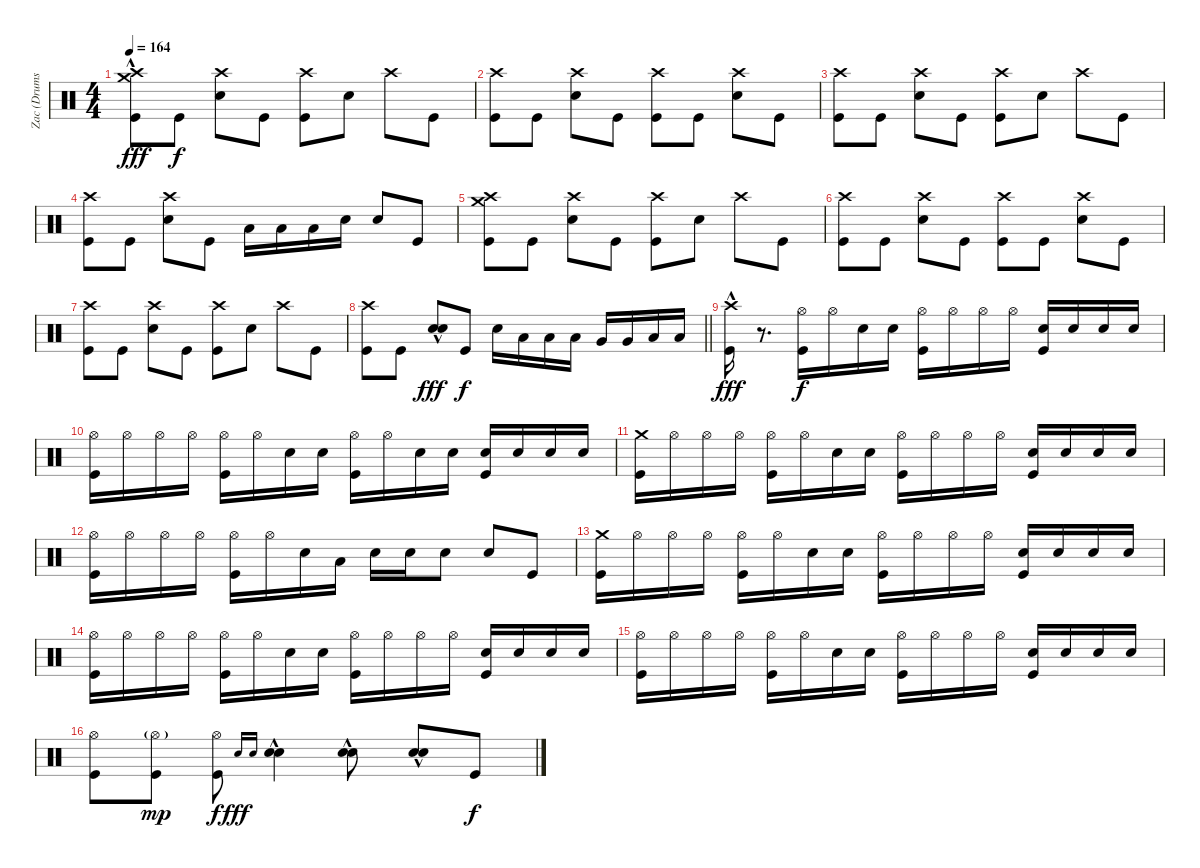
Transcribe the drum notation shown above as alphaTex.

\track ("Zac (Drums)" "Zac (Drums") {instrument percussion}
\staff {score}
\articulation defaults
\ts (4 4)
\tempo 164
\clef neutral
\ks c
("Crash high (hit)"{hac} "Crash medium (hit)" "Kick (hit)").8{dy fff} "Kick (hit)".8{dy f} ("Crash high (hit)" "Electric Snare (hit)").8 "Kick (hit)".8 ("Crash high (hit)" "Kick (hit)").8 "Electric Snare (hit)".8 "Crash high (hit)".8 "Kick (hit)".8 |
("Crash high (hit)" "Kick (hit)").8 "Kick (hit)".8 ("Crash high (hit)" "Electric Snare (hit)").8 "Kick (hit)".8 ("Crash high (hit)" "Kick (hit)").8 "Kick (hit)".8 ("Crash high (hit)" "Electric Snare (hit)").8 "Kick (hit)".8 |
("Crash high (hit)" "Kick (hit)").8 "Kick (hit)".8 ("Crash high (hit)" "Electric Snare (hit)").8 "Kick (hit)".8 ("Crash high (hit)" "Kick (hit)").8 "Electric Snare (hit)".8 "Crash high (hit)".8 "Kick (hit)".8 |
("Crash high (hit)" "Kick (hit)").8 "Kick (hit)".8 ("Crash high (hit)" "Electric Snare (hit)").8 "Kick (hit)".8 "Low Tom (hit)".16 "Low Tom (hit)".16 "Low Tom (hit)".16 "Electric Snare (hit)".16 "Electric Snare (hit)".8 "Kick (hit)".8 |
("Crash high (hit)" "Crash medium (hit)" "Kick (hit)").8 "Kick (hit)".8 ("Crash high (hit)" "Electric Snare (hit)").8 "Kick (hit)".8 ("Crash high (hit)" "Kick (hit)").8 "Electric Snare (hit)".8 "Crash high (hit)".8 "Kick (hit)".8 |
("Crash high (hit)" "Kick (hit)").8 "Kick (hit)".8 ("Crash high (hit)" "Electric Snare (hit)").8 "Kick (hit)".8 ("Crash high (hit)" "Kick (hit)").8 "Kick (hit)".8 ("Crash high (hit)" "Electric Snare (hit)").8 "Kick (hit)".8 |
("Crash high (hit)" "Kick (hit)").8 "Kick (hit)".8 ("Crash high (hit)" "Electric Snare (hit)").8 "Kick (hit)".8 ("Crash high (hit)" "Kick (hit)").8 "Electric Snare (hit)".8 "Crash high (hit)".8 "Kick (hit)".8 |
\barLineRight lightlight
("Crash high (hit)" "Kick (hit)").8 "Kick (hit)".8 ("Electric Snare (hit)"{hac} "Electric Snare (hit)"{hac}).8{dy fff} "Kick (hit)".8{dy f} "Electric Snare (hit)".16 "Low Tom (hit)".16 "Low Tom (hit)".16 "Low Tom (hit)".16 "Very Low Tom (hit)".16 "Very Low Tom (hit)".16 "Low Floor Tom (hit)".16 "Low Floor Tom (hit)".16 |
("Crash high (hit)"{hac} "Kick (hit)").16{dy fff} r.8{d} ("Hi-Hat (open)" "Kick (hit)").16{dy f} "Hi-Hat (open)".16 "Electric Snare (hit)".16 "Electric Snare (hit)".16 ("Hi-Hat (open)" "Kick (hit)").16 "Hi-Hat (open)".16 "Hi-Hat (open)".16 "Hi-Hat (open)".16 ("Electric Snare (hit)" "Kick (hit)").16 "Electric Snare (hit)".16 "Electric Snare (hit)".16 "Electric Snare (hit)".16 |
("Hi-Hat (open)" "Kick (hit)").16 "Hi-Hat (open)".16 "Hi-Hat (open)".16 "Hi-Hat (open)".16 ("Hi-Hat (open)" "Kick (hit)").16 "Hi-Hat (open)".16 "Electric Snare (hit)".16 "Electric Snare (hit)".16 ("Hi-Hat (open)" "Kick (hit)").16 "Hi-Hat (open)".16 "Electric Snare (hit)".16 "Electric Snare (hit)".16 ("Electric Snare (hit)" "Kick (hit)").16 "Electric Snare (hit)".16 "Electric Snare (hit)".16 "Electric Snare (hit)".16 |
("Crash medium (hit)" "Kick (hit)").16 "Hi-Hat (open)".16 "Hi-Hat (open)".16 "Hi-Hat (open)".16 ("Hi-Hat (open)" "Kick (hit)").16 "Hi-Hat (open)".16 "Electric Snare (hit)".16 "Electric Snare (hit)".16 ("Hi-Hat (open)" "Kick (hit)").16 "Hi-Hat (open)".16 "Hi-Hat (open)".16 "Hi-Hat (open)".16 ("Electric Snare (hit)" "Kick (hit)").16 "Electric Snare (hit)".16 "Electric Snare (hit)".16 "Electric Snare (hit)".16 |
("Hi-Hat (open)" "Kick (hit)").16 "Hi-Hat (open)".16 "Hi-Hat (open)".16 "Hi-Hat (open)".16 ("Hi-Hat (open)" "Kick (hit)").16 "Hi-Hat (open)".16 "Electric Snare (hit)".16 "Low Tom (hit)".16 "Electric Snare (hit)".16 "Electric Snare (hit)".16 "Electric Snare (hit)".8 "Electric Snare (hit)".8 "Kick (hit)".8 |
("Crash medium (hit)" "Kick (hit)").16 "Hi-Hat (open)".16 "Hi-Hat (open)".16 "Hi-Hat (open)".16 ("Hi-Hat (open)" "Kick (hit)").16 "Hi-Hat (open)".16 "Electric Snare (hit)".16 "Electric Snare (hit)".16 ("Hi-Hat (open)" "Kick (hit)").16 "Hi-Hat (open)".16 "Hi-Hat (open)".16 "Hi-Hat (open)".16 ("Electric Snare (hit)" "Kick (hit)").16 "Electric Snare (hit)".16 "Electric Snare (hit)".16 "Electric Snare (hit)".16 |
("Hi-Hat (open)" "Kick (hit)").16 "Hi-Hat (open)".16 "Hi-Hat (open)".16 "Hi-Hat (open)".16 ("Hi-Hat (open)" "Kick (hit)").16 "Hi-Hat (open)".16 "Electric Snare (hit)".16 "Electric Snare (hit)".16 ("Hi-Hat (open)" "Kick (hit)").16 "Hi-Hat (open)".16 "Hi-Hat (open)".16 "Hi-Hat (open)".16 ("Electric Snare (hit)" "Kick (hit)").16 "Electric Snare (hit)".16 "Electric Snare (hit)".16 "Electric Snare (hit)".16 |
("Hi-Hat (open)" "Kick (hit)").16 "Hi-Hat (open)".16 "Hi-Hat (open)".16 "Hi-Hat (open)".16 ("Hi-Hat (open)" "Kick (hit)").16 "Hi-Hat (open)".16 "Electric Snare (hit)".16 "Electric Snare (hit)".16 ("Hi-Hat (open)" "Kick (hit)").16 "Hi-Hat (open)".16 "Hi-Hat (open)".16 "Hi-Hat (open)".16 ("Electric Snare (hit)" "Kick (hit)").16 "Electric Snare (hit)".16 "Electric Snare (hit)".16 "Electric Snare (hit)".16 |
("Hi-Hat (open)" "Kick (hit)").8 ("Hi-Hat (open)"{g} "Kick (hit)").8{dy mp} ("Hi-Hat (open)" "Kick (hit)").8{dy f} "Electric Snare (hit)".16{gr onbeat dy fff} "Electric Snare (hit)".16{gr onbeat} ("Electric Snare (hit)"{hac} "Electric Snare (hit)"{hac}).4 ("Electric Snare (hit)"{hac} "Electric Snare (hit)"{hac}).8 ("Electric Snare (hit)"{hac} "Electric Snare (hit)"{hac}).8 "Kick (hit)".8{dy f}
